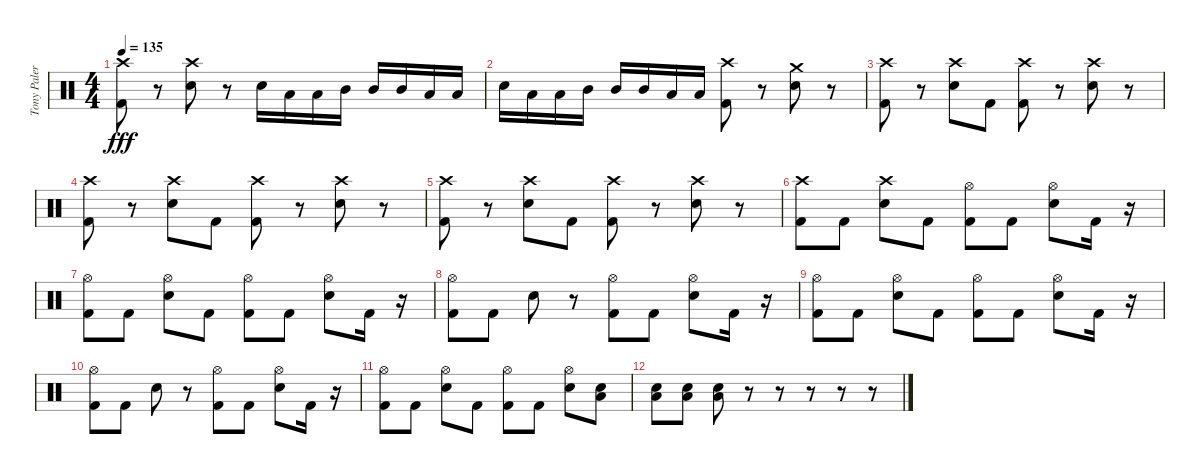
\track ("Tony Palermo" "Tony Paler") {instrument percussion}
\staff {score}
\articulation defaults
\ts (4 4)
\tempo 135
\clef neutral
\ks c
("Crash high (hit)" "Kick (hit) 2").8{dy fff} r.8 ("Crash high (hit)" "Snare (hit) 2").8 r.8 "Snare (hit) 2".16 "Low Tom (hit)".16 "Low Tom (hit)".16 "Mid Tom (hit)".16 "Mid Tom (hit)".16 "Mid Tom (hit)".16 "Low Floor Tom (hit)".16 "Low Floor Tom (hit)".16 |
"Snare (hit) 2".16 "Low Tom (hit)".16 "Low Tom (hit)".16 "Mid Tom (hit)".16 "Mid Tom (hit)".16 "Mid Tom (hit)".16 "Low Floor Tom (hit)".16 "Low Floor Tom (hit)".16 ("Crash high (hit)" "Kick (hit) 2").8 r.8 ("Crash medium (hit)" "Snare (hit) 2").8 r.8 |
("Crash high (hit)" "Kick (hit) 2").8 r.8 ("Crash high (hit)" "Snare (hit) 2").8 "Kick (hit) 2".8 ("Crash high (hit)" "Kick (hit) 2").8 r.8 ("Crash high (hit)" "Snare (hit) 2").8 r.8 |
("Crash high (hit)" "Kick (hit) 2").8 r.8 ("Crash high (hit)" "Snare (hit) 2").8 "Kick (hit) 2".8 ("Crash high (hit)" "Kick (hit) 2").8 r.8 ("Crash high (hit)" "Snare (hit) 2").8 r.8 |
("Crash high (hit)" "Kick (hit) 2").8 r.8 ("Crash high (hit)" "Snare (hit) 2").8 "Kick (hit) 2".8 ("Crash high (hit)" "Kick (hit) 2").8 r.8 ("Crash high (hit)" "Snare (hit) 2").8 r.8 |
("Crash high (hit)" "Kick (hit) 2").8 "Kick (hit) 2".8 ("Crash high (hit)" "Snare (hit) 2").8 "Kick (hit) 2".8 ("Hi-Hat (open)" "Kick (hit) 2").8 "Kick (hit) 2".8 ("Hi-Hat (open)" "Snare (hit) 2").8 "Kick (hit) 2".16 r.16 |
("Hi-Hat (open)" "Kick (hit) 2").8 "Kick (hit) 2".8 ("Hi-Hat (open)" "Snare (hit) 2").8 "Kick (hit) 2".8 ("Hi-Hat (open)" "Kick (hit) 2").8 "Kick (hit) 2".8 ("Hi-Hat (open)" "Snare (hit) 2").8 "Kick (hit) 2".16 r.16 |
("Hi-Hat (open)" "Kick (hit) 2").8 "Kick (hit) 2".8 "Snare (hit) 2".8 r.8 ("Hi-Hat (open)" "Kick (hit) 2").8 "Kick (hit) 2".8 ("Hi-Hat (open)" "Snare (hit) 2").8 "Kick (hit) 2".16 r.16 |
("Hi-Hat (open)" "Kick (hit) 2").8 "Kick (hit) 2".8 ("Hi-Hat (open)" "Snare (hit) 2").8 "Kick (hit) 2".8 ("Hi-Hat (open)" "Kick (hit) 2").8 "Kick (hit) 2".8 ("Hi-Hat (open)" "Snare (hit) 2").8 "Kick (hit) 2".16 r.16 |
("Hi-Hat (open)" "Kick (hit) 2").8 "Kick (hit) 2".8 "Snare (hit) 2".8 r.8 ("Hi-Hat (open)" "Kick (hit) 2").8 "Kick (hit) 2".8 ("Hi-Hat (open)" "Snare (hit) 2").8 "Kick (hit) 2".16 r.16 |
("Hi-Hat (open)" "Kick (hit) 2").8 "Kick (hit) 2".8 ("Hi-Hat (open)" "Snare (hit) 2").8 "Kick (hit) 2".8 ("Hi-Hat (open)" "Kick (hit) 2").8 "Kick (hit) 2".8 ("Hi-Hat (open)" "Snare (hit) 2").8 ("Low Floor Tom (hit)" "Snare (hit) 2").8 |
("Low Floor Tom (hit)" "Snare (hit) 2").8 ("Low Floor Tom (hit)" "Snare (hit) 2").8 ("Low Floor Tom (hit)" "Snare (hit) 2").8 r.8 r.8 r.8 r.8 r.8
